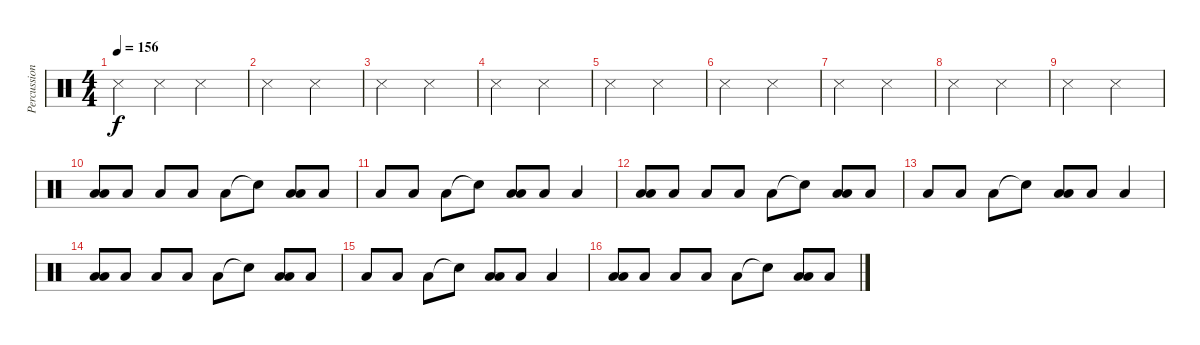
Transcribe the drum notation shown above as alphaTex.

\track ("Percussions" "Percussion") {instrument percussion}
\staff {score}
\articulation defaults
\ts (4 4)
\tempo 156
\clef neutral
\ks c "Metronome (hit)".4{dy f} "Metronome (hit)".4 "Metronome (hit)".2
|
"Metronome (hit)".2 "Metronome (hit)".2 |
"Metronome (hit)".2 "Metronome (hit)".2 |
"Metronome (hit)".2 "Metronome (hit)".2 |
"Metronome (hit)".2 "Metronome (hit)".2 |
"Metronome (hit)".2 "Metronome (hit)".2 |
"Metronome (hit)".2 "Metronome (hit)".2 |
"Metronome (hit)".2 "Metronome (hit)".2 |
"Metronome (hit)".2 "Metronome (hit)".2 |
("Low Tom (hit)" "Low Tom (hit)").8 "Low Tom (hit)".8 "Low Tom (hit)".8 "Low Tom (hit)".8 "Low Tom (hit)".8 "Snare (hit)"{t}.8 ("Low Tom (hit)" "Low Tom (hit)").8 "Low Tom (hit)".8 |
"Low Tom (hit)".8 "Low Tom (hit)".8 "Low Tom (hit)".8 "Snare (hit)"{t}.8 ("Low Tom (hit)" "Low Tom (hit)").8 "Low Tom (hit)".8 "Low Tom (hit)".4 |
("Low Tom (hit)" "Low Tom (hit)").8 "Low Tom (hit)".8 "Low Tom (hit)".8 "Low Tom (hit)".8 "Low Tom (hit)".8 "Snare (hit)"{t}.8 ("Low Tom (hit)" "Low Tom (hit)").8 "Low Tom (hit)".8 |
"Low Tom (hit)".8 "Low Tom (hit)".8 "Low Tom (hit)".8 "Snare (hit)"{t}.8 ("Low Tom (hit)" "Low Tom (hit)").8 "Low Tom (hit)".8 "Low Tom (hit)".4 |
("Low Tom (hit)" "Low Tom (hit)").8 "Low Tom (hit)".8 "Low Tom (hit)".8 "Low Tom (hit)".8 "Low Tom (hit)".8 "Snare (hit)"{t}.8 ("Low Tom (hit)" "Low Tom (hit)").8 "Low Tom (hit)".8 |
"Low Tom (hit)".8 "Low Tom (hit)".8 "Low Tom (hit)".8 "Snare (hit)"{t}.8 ("Low Tom (hit)" "Low Tom (hit)").8 "Low Tom (hit)".8 "Low Tom (hit)".4 |
("Low Tom (hit)" "Low Tom (hit)").8 "Low Tom (hit)".8 "Low Tom (hit)".8 "Low Tom (hit)".8 "Low Tom (hit)".8 "Snare (hit)"{t}.8 ("Low Tom (hit)" "Low Tom (hit)").8 "Low Tom (hit)".8
